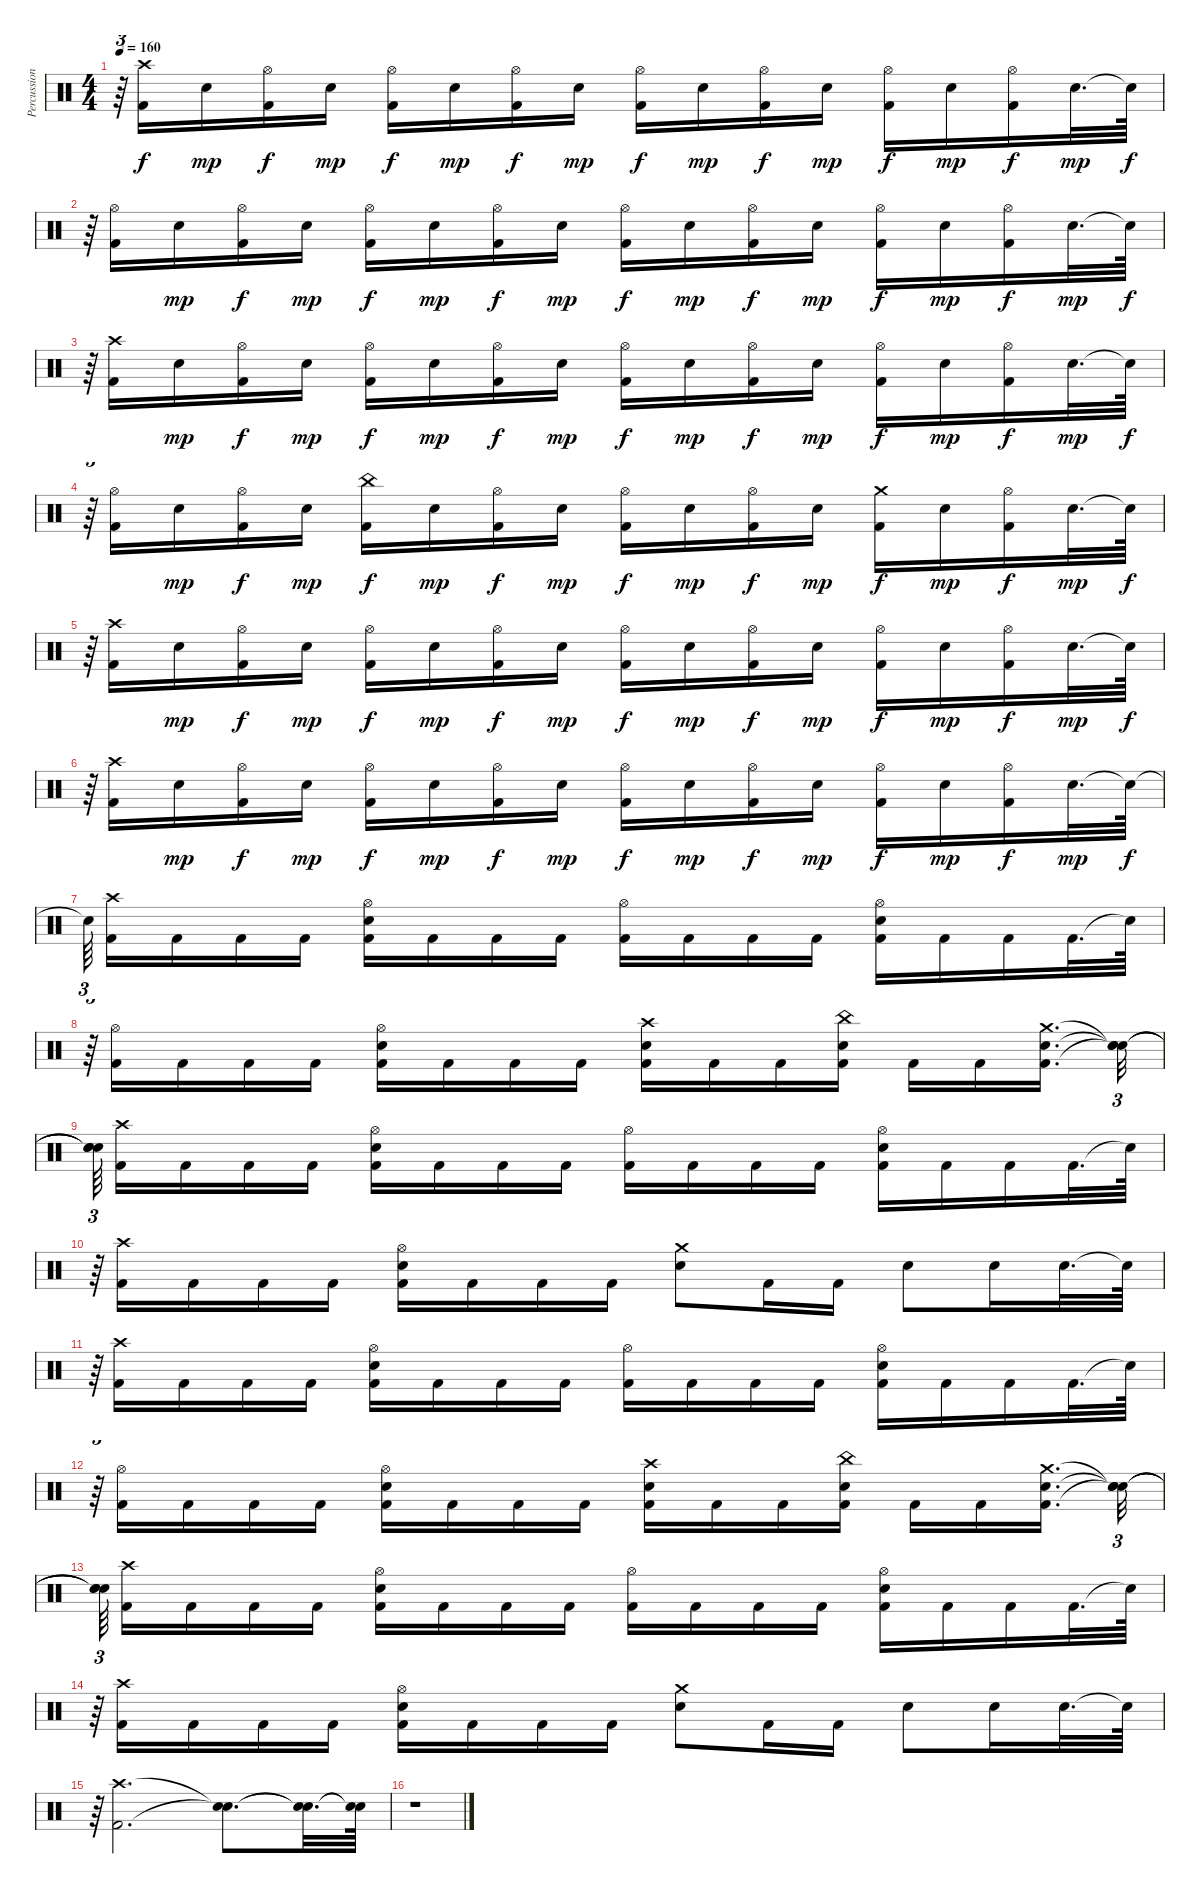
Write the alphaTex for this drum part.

\track ("Percussion" "Percussion") {instrument percussion}
\staff {score}
\articulation defaults
\ts (4 4)
\tempo 160
\clef neutral
\ks c
r.64{tu (3 2) dy f} ("Crash high (hit)" "Kick (hit) 2").16 "Electric Snare (hit)".16{dy mp} ("Hi-Hat (open)" "Kick (hit) 2").16{dy f} "Electric Snare (hit)".16{dy mp} ("Hi-Hat (open)" "Kick (hit) 2").16{dy f} "Electric Snare (hit)".16{dy mp} ("Hi-Hat (open)" "Kick (hit) 2").16{dy f} "Electric Snare (hit)".16{dy mp} ("Hi-Hat (open)" "Kick (hit) 2").16{dy f} "Electric Snare (hit)".16{dy mp} ("Hi-Hat (open)" "Kick (hit) 2").16{dy f} "Electric Snare (hit)".16{dy mp} ("Hi-Hat (open)" "Kick (hit) 2").16{dy f} "Electric Snare (hit)".16{dy mp} ("Hi-Hat (open)" "Kick (hit) 2").16{dy f} "Electric Snare (hit)".32{d dy mp} "Snare (hit)"{t}.64{dy f} |
r.64{tu (3 2)} ("Hi-Hat (open)" "Kick (hit) 2").16 "Electric Snare (hit)".16{dy mp} ("Hi-Hat (open)" "Kick (hit) 2").16{dy f} "Electric Snare (hit)".16{dy mp} ("Hi-Hat (open)" "Kick (hit) 2").16{dy f} "Electric Snare (hit)".16{dy mp} ("Hi-Hat (open)" "Kick (hit) 2").16{dy f} "Electric Snare (hit)".16{dy mp} ("Hi-Hat (open)" "Kick (hit) 2").16{dy f} "Electric Snare (hit)".16{dy mp} ("Hi-Hat (open)" "Kick (hit) 2").16{dy f} "Electric Snare (hit)".16{dy mp} ("Hi-Hat (open)" "Kick (hit) 2").16{dy f} "Electric Snare (hit)".16{dy mp} ("Hi-Hat (open)" "Kick (hit) 2").16{dy f} "Electric Snare (hit)".32{d dy mp} "Snare (hit)"{t}.64{dy f} |
r.64{tu (3 2)} ("Crash high (hit)" "Kick (hit) 2").16 "Electric Snare (hit)".16{dy mp} ("Hi-Hat (open)" "Kick (hit) 2").16{dy f} "Electric Snare (hit)".16{dy mp} ("Hi-Hat (open)" "Kick (hit) 2").16{dy f} "Electric Snare (hit)".16{dy mp} ("Hi-Hat (open)" "Kick (hit) 2").16{dy f} "Electric Snare (hit)".16{dy mp} ("Hi-Hat (open)" "Kick (hit) 2").16{dy f} "Electric Snare (hit)".16{dy mp} ("Hi-Hat (open)" "Kick (hit) 2").16{dy f} "Electric Snare (hit)".16{dy mp} ("Hi-Hat (open)" "Kick (hit) 2").16{dy f} "Electric Snare (hit)".16{dy mp} ("Hi-Hat (open)" "Kick (hit) 2").16{dy f} "Electric Snare (hit)".32{d dy mp} "Snare (hit)"{t}.64{dy f} |
r.64{tu (3 2)} ("Hi-Hat (open)" "Kick (hit) 2").16 "Electric Snare (hit)".16{dy mp} ("Hi-Hat (open)" "Kick (hit) 2").16{dy f} "Electric Snare (hit)".16{dy mp} ("China (hit)" "Kick (hit) 2").16{dy f} "Electric Snare (hit)".16{dy mp} ("Hi-Hat (open)" "Kick (hit) 2").16{dy f} "Electric Snare (hit)".16{dy mp} ("Hi-Hat (open)" "Kick (hit) 2").16{dy f} "Electric Snare (hit)".16{dy mp} ("Hi-Hat (open)" "Kick (hit) 2").16{dy f} "Electric Snare (hit)".16{dy mp} ("Crash medium (hit)" "Kick (hit) 2").16{dy f} "Electric Snare (hit)".16{dy mp} ("Hi-Hat (open)" "Kick (hit) 2").16{dy f} "Electric Snare (hit)".32{d dy mp} "Snare (hit)"{t}.64{dy f} |
r.64{tu (3 2)} ("Crash high (hit)" "Kick (hit) 2").16 "Electric Snare (hit)".16{dy mp} ("Hi-Hat (open)" "Kick (hit) 2").16{dy f} "Electric Snare (hit)".16{dy mp} ("Hi-Hat (open)" "Kick (hit) 2").16{dy f} "Electric Snare (hit)".16{dy mp} ("Hi-Hat (open)" "Kick (hit) 2").16{dy f} "Electric Snare (hit)".16{dy mp} ("Hi-Hat (open)" "Kick (hit) 2").16{dy f} "Electric Snare (hit)".16{dy mp} ("Hi-Hat (open)" "Kick (hit) 2").16{dy f} "Electric Snare (hit)".16{dy mp} ("Hi-Hat (open)" "Kick (hit) 2").16{dy f} "Electric Snare (hit)".16{dy mp} ("Hi-Hat (open)" "Kick (hit) 2").16{dy f} "Electric Snare (hit)".32{d dy mp} "Snare (hit)"{t}.64{dy f} |
r.64{tu (3 2)} ("Crash high (hit)" "Kick (hit) 2").16 "Electric Snare (hit)".16{dy mp} ("Hi-Hat (open)" "Kick (hit) 2").16{dy f} "Electric Snare (hit)".16{dy mp} ("Hi-Hat (open)" "Kick (hit) 2").16{dy f} "Electric Snare (hit)".16{dy mp} ("Hi-Hat (open)" "Kick (hit) 2").16{dy f} "Electric Snare (hit)".16{dy mp} ("Hi-Hat (open)" "Kick (hit) 2").16{dy f} "Electric Snare (hit)".16{dy mp} ("Hi-Hat (open)" "Kick (hit) 2").16{dy f} "Electric Snare (hit)".16{dy mp} ("Hi-Hat (open)" "Kick (hit) 2").16{dy f} "Electric Snare (hit)".16{dy mp} ("Hi-Hat (open)" "Kick (hit) 2").16{dy f} "Electric Snare (hit)".32{d dy mp} "Snare (hit)"{t}.64{dy f} |
"Snare (hit)"{t}.64{tu (3 2)} ("Crash high (hit)" "Kick (hit) 2").16 "Kick (hit) 2".16 "Kick (hit) 2".16 "Kick (hit) 2".16 ("Hi-Hat (open)" "Electric Snare (hit)" "Kick (hit) 2").16 "Kick (hit) 2".16 "Kick (hit) 2".16 "Kick (hit) 2".16 ("Hi-Hat (open)" "Kick (hit) 2").16 "Kick (hit) 2".16 "Kick (hit) 2".16 "Kick (hit) 2".16 ("Hi-Hat (open)" "Electric Snare (hit)" "Kick (hit) 2").16 "Kick (hit) 2".16 "Kick (hit) 2".16 "Kick (hit) 2".32{d} "Snare (hit)"{t}.64 |
r.64{tu (3 2)} ("Hi-Hat (open)" "Kick (hit) 2").16 "Kick (hit) 2".16 "Kick (hit) 2".16 "Kick (hit) 2".16 ("Hi-Hat (open)" "Electric Snare (hit)" "Kick (hit) 2").16 "Kick (hit) 2".16 "Kick (hit) 2".16 "Kick (hit) 2".16 ("Crash high (hit)" "Electric Snare (hit)" "Kick (hit) 2").16 "Kick (hit) 2".16 "Kick (hit) 2".16 ("China (hit)" "Electric Snare (hit)" "Kick (hit) 2").16 "Kick (hit) 2".16 "Kick (hit) 2".16 ("Crash medium (hit)" "Electric Snare (hit)" "Kick (hit) 2").16{d} ("Snare (hit)"{t} "Snare (hit)"{t} "Snare (hit)"{t}).32{tu (3 2)} |
("Snare (hit)"{t} "Snare (hit)"{t} "Snare (hit)"{t}).64{tu (3 2)} ("Crash high (hit)" "Kick (hit) 2").16 "Kick (hit) 2".16 "Kick (hit) 2".16 "Kick (hit) 2".16 ("Hi-Hat (open)" "Electric Snare (hit)" "Kick (hit) 2").16 "Kick (hit) 2".16 "Kick (hit) 2".16 "Kick (hit) 2".16 ("Hi-Hat (open)" "Kick (hit) 2").16 "Kick (hit) 2".16 "Kick (hit) 2".16 "Kick (hit) 2".16 ("Hi-Hat (open)" "Electric Snare (hit)" "Kick (hit) 2").16 "Kick (hit) 2".16 "Kick (hit) 2".16 "Kick (hit) 2".32{d} "Snare (hit)"{t}.64 |
r.64{tu (3 2)} ("Crash high (hit)" "Kick (hit) 2").16 "Kick (hit) 2".16 "Kick (hit) 2".16 "Kick (hit) 2".16 ("Hi-Hat (open)" "Electric Snare (hit)" "Kick (hit) 2").16 "Kick (hit) 2".16 "Kick (hit) 2".16 "Kick (hit) 2".16 ("Crash medium (hit)" "Electric Snare (hit)").8 "Kick (hit) 2".16 "Kick (hit) 2".16 "Electric Snare (hit)".8 "Electric Snare (hit)".16 "Electric Snare (hit)".32{d} "Snare (hit)"{t}.64 |
r.64{tu (3 2)} ("Crash high (hit)" "Kick (hit) 2").16 "Kick (hit) 2".16 "Kick (hit) 2".16 "Kick (hit) 2".16 ("Hi-Hat (open)" "Electric Snare (hit)" "Kick (hit) 2").16 "Kick (hit) 2".16 "Kick (hit) 2".16 "Kick (hit) 2".16 ("Hi-Hat (open)" "Kick (hit) 2").16 "Kick (hit) 2".16 "Kick (hit) 2".16 "Kick (hit) 2".16 ("Hi-Hat (open)" "Electric Snare (hit)" "Kick (hit) 2").16 "Kick (hit) 2".16 "Kick (hit) 2".16 "Kick (hit) 2".32{d} "Snare (hit)"{t}.64 |
r.64{tu (3 2)} ("Hi-Hat (open)" "Kick (hit) 2").16 "Kick (hit) 2".16 "Kick (hit) 2".16 "Kick (hit) 2".16 ("Hi-Hat (open)" "Electric Snare (hit)" "Kick (hit) 2").16 "Kick (hit) 2".16 "Kick (hit) 2".16 "Kick (hit) 2".16 ("Crash high (hit)" "Electric Snare (hit)" "Kick (hit) 2").16 "Kick (hit) 2".16 "Kick (hit) 2".16 ("China (hit)" "Electric Snare (hit)" "Kick (hit) 2").16 "Kick (hit) 2".16 "Kick (hit) 2".16 ("Crash medium (hit)" "Electric Snare (hit)" "Kick (hit) 2").16{d} ("Snare (hit)"{t} "Snare (hit)"{t} "Snare (hit)"{t}).32{tu (3 2)} |
("Snare (hit)"{t} "Snare (hit)"{t} "Snare (hit)"{t}).64{tu (3 2)} ("Crash high (hit)" "Kick (hit) 2").16 "Kick (hit) 2".16 "Kick (hit) 2".16 "Kick (hit) 2".16 ("Hi-Hat (open)" "Electric Snare (hit)" "Kick (hit) 2").16 "Kick (hit) 2".16 "Kick (hit) 2".16 "Kick (hit) 2".16 ("Hi-Hat (open)" "Kick (hit) 2").16 "Kick (hit) 2".16 "Kick (hit) 2".16 "Kick (hit) 2".16 ("Hi-Hat (open)" "Electric Snare (hit)" "Kick (hit) 2").16 "Kick (hit) 2".16 "Kick (hit) 2".16 "Kick (hit) 2".32{d} "Snare (hit)"{t}.64 |
r.64{tu (3 2)} ("Crash high (hit)" "Kick (hit) 2").16 "Kick (hit) 2".16 "Kick (hit) 2".16 "Kick (hit) 2".16 ("Hi-Hat (open)" "Electric Snare (hit)" "Kick (hit) 2").16 "Kick (hit) 2".16 "Kick (hit) 2".16 "Kick (hit) 2".16 ("Crash medium (hit)" "Electric Snare (hit)").8 "Kick (hit) 2".16 "Kick (hit) 2".16 "Electric Snare (hit)".8 "Electric Snare (hit)".16 "Electric Snare (hit)".32{d} "Snare (hit)"{t}.64 |
r.64{tu (3 2)} ("Crash high (hit)" "Kick (hit) 2").2{d} ("Snare (hit)"{t} "Snare (hit)"{t}).8{d} ("Snare (hit)"{t} "Snare (hit)"{t}).32{d} ("Snare (hit)"{t} "Snare (hit)"{t}).64 |
r.1
